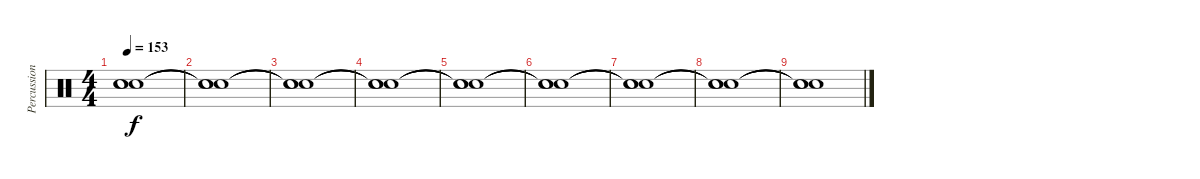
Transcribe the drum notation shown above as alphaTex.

\track ("Percussion" "Percussion") {instrument percussion}
\staff {score}
\articulation defaults
\ts (4 4)
\tempo 153
\clef neutral
\ks c
("Snare (hit)"{t} "Snare (hit)"{t} "Snare (hit)"{t}).1{dy f} |
("Snare (hit)"{t} "Snare (hit)"{t} "Snare (hit)"{t}).1 |
("Snare (hit)"{t} "Snare (hit)"{t} "Snare (hit)"{t}).1 |
("Snare (hit)"{t} "Snare (hit)"{t} "Snare (hit)"{t}).1 |
("Snare (hit)"{t} "Snare (hit)"{t} "Snare (hit)"{t}).1 |
("Snare (hit)"{t} "Snare (hit)"{t} "Snare (hit)"{t}).1 |
("Snare (hit)"{t} "Snare (hit)"{t} "Snare (hit)"{t}).1 |
("Snare (hit)"{t} "Snare (hit)"{t} "Snare (hit)"{t}).1 |
("Snare (hit)"{t} "Snare (hit)"{t} "Snare (hit)"{t}).1
